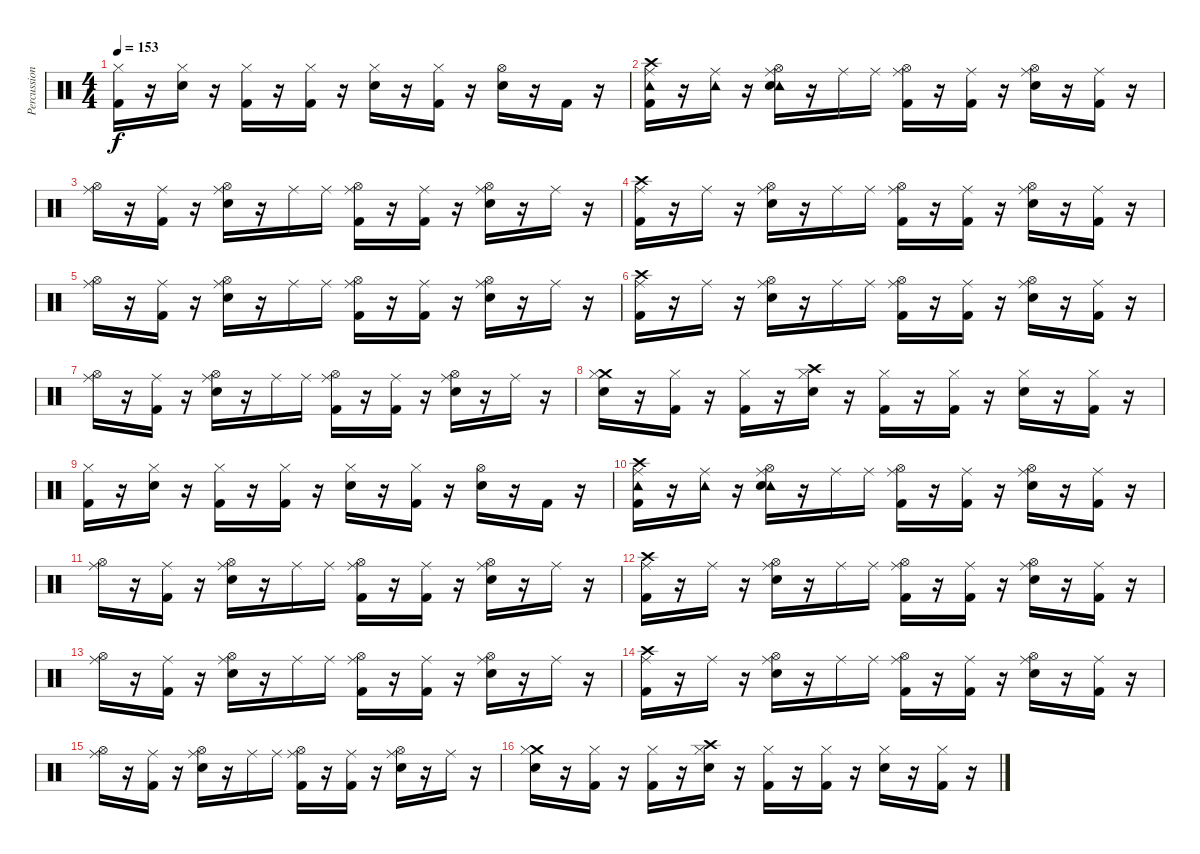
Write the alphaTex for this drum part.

\track ("Percussion" "Percussion") {instrument percussion}
\staff {score}
\articulation defaults
\ts (4 4)
\tempo 153
\clef neutral
\ks c
("Kick (hit) 2" "Hi-Hat (closed)").16{dy f} r.16 ("Electric Snare (hit)" "Hi-Hat (closed)").16 r.16 ("Kick (hit) 2" "Hi-Hat (closed)").16 r.16 ("Kick (hit) 2" "Hi-Hat (closed)").16 r.16 ("Electric Snare (hit)" "Hi-Hat (closed)").16 r.16 ("Kick (hit) 2" "Hi-Hat (closed)").16 r.16 ("Electric Snare (hit)" "Hi-Hat (open)").16 r.16 "Kick (hit) 2".16 r.16 |
("Crash high (hit)" "Tambourine (hit)" "Ride (middle)" "Kick (hit) 2").16 r.16 ("Tambourine (hit)" "Ride (middle)").16 r.16 ("Tambourine (hit)" "Hi-Hat (open)" "Ride (middle)" "Electric Snare (hit)").16 r.16 "Ride (middle)".16 "Ride (middle)".16 ("Hi-Hat (open)" "Ride (middle)" "Kick (hit) 2").16 r.16 ("Ride (middle)" "Kick (hit) 2").16 r.16 ("Hi-Hat (open)" "Ride (middle)" "Electric Snare (hit)").16 r.16 ("Ride (middle)" "Kick (hit) 2").16 r.16 |
("Hi-Hat (open)" "Ride (middle)").16 r.16 ("Ride (middle)" "Kick (hit) 2").16 r.16 ("Hi-Hat (open)" "Ride (middle)" "Electric Snare (hit)").16 r.16 "Ride (middle)".16 "Ride (middle)".16 ("Hi-Hat (open)" "Ride (middle)" "Kick (hit) 2").16 r.16 ("Ride (middle)" "Kick (hit) 2").16 r.16 ("Hi-Hat (open)" "Ride (middle)" "Electric Snare (hit)").16 r.16 "Ride (middle)".16 r.16 |
("Crash high (hit)" "Ride (middle)" "Kick (hit) 2").16 r.16 "Ride (middle)".16 r.16 ("Hi-Hat (open)" "Ride (middle)" "Electric Snare (hit)").16 r.16 "Ride (middle)".16 "Ride (middle)".16 ("Hi-Hat (open)" "Ride (middle)" "Kick (hit) 2").16 r.16 ("Ride (middle)" "Kick (hit) 2").16 r.16 ("Hi-Hat (open)" "Ride (middle)" "Electric Snare (hit)").16 r.16 ("Ride (middle)" "Kick (hit) 2").16 r.16 |
("Hi-Hat (open)" "Ride (middle)").16 r.16 ("Ride (middle)" "Kick (hit) 2").16 r.16 ("Hi-Hat (open)" "Ride (middle)" "Electric Snare (hit)").16 r.16 "Ride (middle)".16 "Ride (middle)".16 ("Hi-Hat (open)" "Ride (middle)" "Kick (hit) 2").16 r.16 ("Ride (middle)" "Kick (hit) 2").16 r.16 ("Hi-Hat (open)" "Ride (middle)" "Electric Snare (hit)").16 r.16 "Ride (middle)".16 r.16 |
("Crash high (hit)" "Ride (middle)" "Kick (hit) 2").16 r.16 "Ride (middle)".16 r.16 ("Hi-Hat (open)" "Ride (middle)" "Electric Snare (hit)").16 r.16 "Ride (middle)".16 "Ride (middle)".16 ("Hi-Hat (open)" "Ride (middle)" "Kick (hit) 2").16 r.16 ("Ride (middle)" "Kick (hit) 2").16 r.16 ("Hi-Hat (open)" "Ride (middle)" "Electric Snare (hit)").16 r.16 ("Ride (middle)" "Kick (hit) 2").16 r.16 |
("Hi-Hat (open)" "Ride (middle)").16 r.16 ("Ride (middle)" "Kick (hit) 2").16 r.16 ("Hi-Hat (open)" "Ride (middle)" "Electric Snare (hit)").16 r.16 "Ride (middle)".16 "Ride (middle)".16 ("Hi-Hat (open)" "Ride (middle)" "Kick (hit) 2").16 r.16 ("Ride (middle)" "Kick (hit) 2").16 r.16 ("Hi-Hat (open)" "Ride (middle)" "Electric Snare (hit)").16 r.16 "Ride (middle)".16 r.16 |
("Electric Snare (hit)" "Crash medium (hit)" "Hi-Hat (closed)").16 r.16 ("Kick (hit) 2" "Hi-Hat (closed)").16 r.16 ("Kick (hit) 2" "Hi-Hat (closed)").16 r.16 ("Electric Snare (hit)" "Crash high (hit)" "Hi-Hat (closed)").16 r.16 ("Kick (hit) 2" "Hi-Hat (closed)").16 r.16 ("Kick (hit) 2" "Hi-Hat (closed)").16 r.16 ("Electric Snare (hit)" "Hi-Hat (closed)").16 r.16 ("Kick (hit) 2" "Hi-Hat (closed)").16 r.16 |
("Kick (hit) 2" "Hi-Hat (closed)").16 r.16 ("Electric Snare (hit)" "Hi-Hat (closed)").16 r.16 ("Kick (hit) 2" "Hi-Hat (closed)").16 r.16 ("Kick (hit) 2" "Hi-Hat (closed)").16 r.16 ("Electric Snare (hit)" "Hi-Hat (closed)").16 r.16 ("Kick (hit) 2" "Hi-Hat (closed)").16 r.16 ("Electric Snare (hit)" "Hi-Hat (open)").16 r.16 "Kick (hit) 2".16 r.16 |
("Crash high (hit)" "Tambourine (hit)" "Ride (middle)" "Kick (hit) 2").16 r.16 ("Tambourine (hit)" "Ride (middle)").16 r.16 ("Tambourine (hit)" "Hi-Hat (open)" "Ride (middle)" "Electric Snare (hit)").16 r.16 "Ride (middle)".16 "Ride (middle)".16 ("Hi-Hat (open)" "Ride (middle)" "Kick (hit) 2").16 r.16 ("Ride (middle)" "Kick (hit) 2").16 r.16 ("Hi-Hat (open)" "Ride (middle)" "Electric Snare (hit)").16 r.16 ("Ride (middle)" "Kick (hit) 2").16 r.16 |
("Hi-Hat (open)" "Ride (middle)").16 r.16 ("Ride (middle)" "Kick (hit) 2").16 r.16 ("Hi-Hat (open)" "Ride (middle)" "Electric Snare (hit)").16 r.16 "Ride (middle)".16 "Ride (middle)".16 ("Hi-Hat (open)" "Ride (middle)" "Kick (hit) 2").16 r.16 ("Ride (middle)" "Kick (hit) 2").16 r.16 ("Hi-Hat (open)" "Ride (middle)" "Electric Snare (hit)").16 r.16 "Ride (middle)".16 r.16 |
("Crash high (hit)" "Ride (middle)" "Kick (hit) 2").16 r.16 "Ride (middle)".16 r.16 ("Hi-Hat (open)" "Ride (middle)" "Electric Snare (hit)").16 r.16 "Ride (middle)".16 "Ride (middle)".16 ("Hi-Hat (open)" "Ride (middle)" "Kick (hit) 2").16 r.16 ("Ride (middle)" "Kick (hit) 2").16 r.16 ("Hi-Hat (open)" "Ride (middle)" "Electric Snare (hit)").16 r.16 ("Ride (middle)" "Kick (hit) 2").16 r.16 |
("Hi-Hat (open)" "Ride (middle)").16 r.16 ("Ride (middle)" "Kick (hit) 2").16 r.16 ("Hi-Hat (open)" "Ride (middle)" "Electric Snare (hit)").16 r.16 "Ride (middle)".16 "Ride (middle)".16 ("Hi-Hat (open)" "Ride (middle)" "Kick (hit) 2").16 r.16 ("Ride (middle)" "Kick (hit) 2").16 r.16 ("Hi-Hat (open)" "Ride (middle)" "Electric Snare (hit)").16 r.16 "Ride (middle)".16 r.16 |
("Crash high (hit)" "Ride (middle)" "Kick (hit) 2").16 r.16 "Ride (middle)".16 r.16 ("Hi-Hat (open)" "Ride (middle)" "Electric Snare (hit)").16 r.16 "Ride (middle)".16 "Ride (middle)".16 ("Hi-Hat (open)" "Ride (middle)" "Kick (hit) 2").16 r.16 ("Ride (middle)" "Kick (hit) 2").16 r.16 ("Hi-Hat (open)" "Ride (middle)" "Electric Snare (hit)").16 r.16 ("Ride (middle)" "Kick (hit) 2").16 r.16 |
("Hi-Hat (open)" "Ride (middle)").16 r.16 ("Ride (middle)" "Kick (hit) 2").16 r.16 ("Hi-Hat (open)" "Ride (middle)" "Electric Snare (hit)").16 r.16 "Ride (middle)".16 "Ride (middle)".16 ("Hi-Hat (open)" "Ride (middle)" "Kick (hit) 2").16 r.16 ("Ride (middle)" "Kick (hit) 2").16 r.16 ("Hi-Hat (open)" "Ride (middle)" "Electric Snare (hit)").16 r.16 "Ride (middle)".16 r.16 |
("Electric Snare (hit)" "Crash medium (hit)" "Hi-Hat (closed)").16 r.16 ("Kick (hit) 2" "Hi-Hat (closed)").16 r.16 ("Kick (hit) 2" "Hi-Hat (closed)").16 r.16 ("Electric Snare (hit)" "Crash high (hit)" "Hi-Hat (closed)").16 r.16 ("Kick (hit) 2" "Hi-Hat (closed)").16 r.16 ("Kick (hit) 2" "Hi-Hat (closed)").16 r.16 ("Electric Snare (hit)" "Hi-Hat (closed)").16 r.16 ("Kick (hit) 2" "Hi-Hat (closed)").16 r.16
